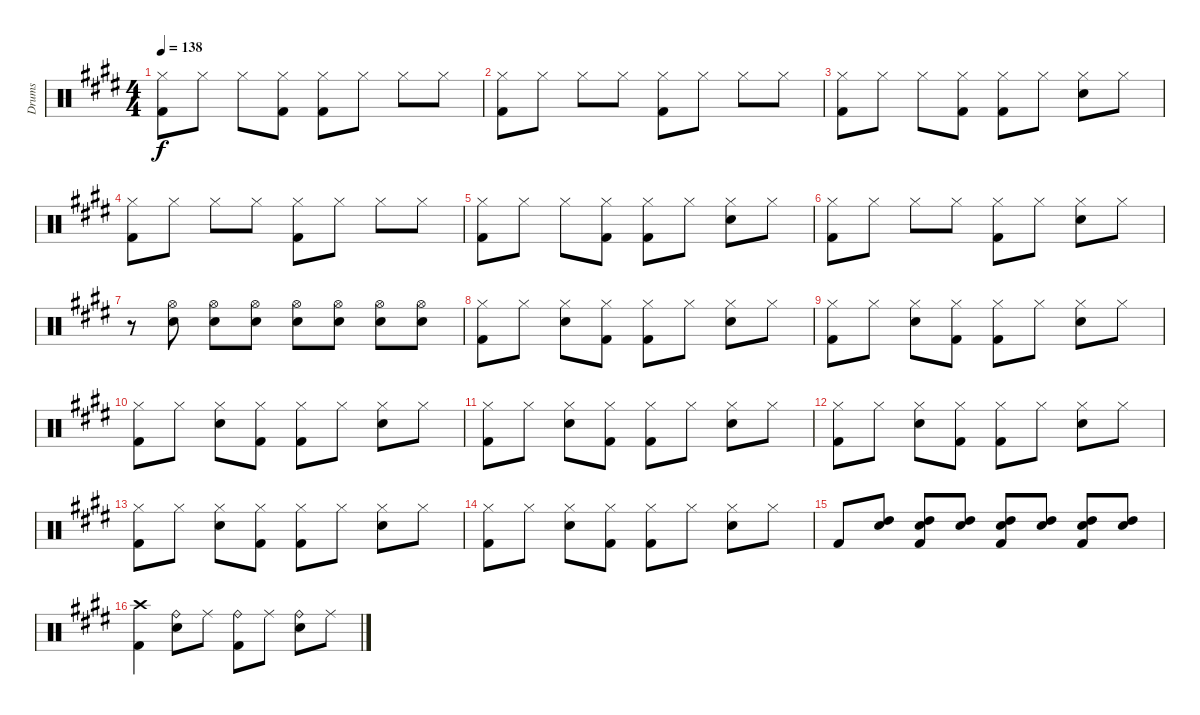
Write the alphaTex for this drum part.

\track ("Drums" "Drums") {instrument percussion}
\staff {score}
\articulation defaults
\ts (4 4)
\tempo 138
\clef neutral
\ks e
("Hi-Hat (closed)" "Kick (hit) 2").8{dy f} "Hi-Hat (closed)".8 "Hi-Hat (closed)".8 ("Hi-Hat (closed)" "Kick (hit) 2").8 ("Hi-Hat (closed)" "Kick (hit) 2").8 "Hi-Hat (closed)".8 "Hi-Hat (closed)".8 "Hi-Hat (closed)".8 |
("Hi-Hat (closed)" "Kick (hit) 2").8 "Hi-Hat (closed)".8 "Hi-Hat (closed)".8 "Hi-Hat (closed)".8 ("Hi-Hat (closed)" "Kick (hit) 2").8 "Hi-Hat (closed)".8 "Hi-Hat (closed)".8 "Hi-Hat (closed)".8 |
("Hi-Hat (closed)" "Kick (hit) 2").8 "Hi-Hat (closed)".8 "Hi-Hat (closed)".8 ("Hi-Hat (closed)" "Kick (hit) 2").8 ("Hi-Hat (closed)" "Kick (hit) 2").8 "Hi-Hat (closed)".8 ("Hi-Hat (closed)" "Snare (hit) 2").8 "Hi-Hat (closed)".8 |
("Hi-Hat (closed)" "Kick (hit) 2").8 "Hi-Hat (closed)".8 "Hi-Hat (closed)".8 "Hi-Hat (closed)".8 ("Hi-Hat (closed)" "Kick (hit) 2").8 "Hi-Hat (closed)".8 "Hi-Hat (closed)".8 "Hi-Hat (closed)".8 |
("Hi-Hat (closed)" "Kick (hit) 2").8 "Hi-Hat (closed)".8 "Hi-Hat (closed)".8 ("Hi-Hat (closed)" "Kick (hit) 2").8 ("Hi-Hat (closed)" "Kick (hit) 2").8 "Hi-Hat (closed)".8 ("Hi-Hat (closed)" "Snare (hit) 2").8 "Hi-Hat (closed)".8 |
("Hi-Hat (closed)" "Kick (hit) 2").8 "Hi-Hat (closed)".8 "Hi-Hat (closed)".8 "Hi-Hat (closed)".8 ("Hi-Hat (closed)" "Kick (hit) 2").8 "Hi-Hat (closed)".8 ("Hi-Hat (closed)" "Snare (hit) 2").8 "Hi-Hat (closed)".8 |
r.8 ("Hi-Hat (open)" "Snare (hit) 2").8 ("Hi-Hat (open)" "Snare (hit) 2").8 ("Hi-Hat (open)" "Snare (hit) 2").8 ("Hi-Hat (open)" "Snare (hit) 2").8 ("Hi-Hat (open)" "Snare (hit) 2").8 ("Hi-Hat (open)" "Snare (hit) 2").8 ("Hi-Hat (open)" "Snare (hit) 2").8 |
("Hi-Hat (closed)" "Kick (hit) 2").8 "Hi-Hat (closed)".8 ("Hi-Hat (closed)" "Snare (hit) 2").8 ("Hi-Hat (closed)" "Kick (hit) 2").8 ("Hi-Hat (closed)" "Kick (hit) 2").8 "Hi-Hat (closed)".8 ("Hi-Hat (closed)" "Snare (hit) 2").8 "Hi-Hat (closed)".8 |
("Hi-Hat (closed)" "Kick (hit) 2").8 "Hi-Hat (closed)".8 ("Hi-Hat (closed)" "Snare (hit) 2").8 ("Hi-Hat (closed)" "Kick (hit) 2").8 ("Hi-Hat (closed)" "Kick (hit) 2").8 "Hi-Hat (closed)".8 ("Hi-Hat (closed)" "Snare (hit) 2").8 "Hi-Hat (closed)".8 |
("Hi-Hat (closed)" "Kick (hit) 2").8 "Hi-Hat (closed)".8 ("Hi-Hat (closed)" "Snare (hit) 2").8 ("Hi-Hat (closed)" "Kick (hit) 2").8 ("Hi-Hat (closed)" "Kick (hit) 2").8 "Hi-Hat (closed)".8 ("Hi-Hat (closed)" "Snare (hit) 2").8 "Hi-Hat (closed)".8 |
("Hi-Hat (closed)" "Kick (hit) 2").8 "Hi-Hat (closed)".8 ("Hi-Hat (closed)" "Snare (hit) 2").8 ("Hi-Hat (closed)" "Kick (hit) 2").8 ("Hi-Hat (closed)" "Kick (hit) 2").8 "Hi-Hat (closed)".8 ("Hi-Hat (closed)" "Snare (hit) 2").8 "Hi-Hat (closed)".8 |
("Hi-Hat (closed)" "Kick (hit) 2").8 "Hi-Hat (closed)".8 ("Hi-Hat (closed)" "Snare (hit) 2").8 ("Hi-Hat (closed)" "Kick (hit) 2").8 ("Hi-Hat (closed)" "Kick (hit) 2").8 "Hi-Hat (closed)".8 ("Hi-Hat (closed)" "Snare (hit) 2").8 "Hi-Hat (closed)".8 |
("Hi-Hat (closed)" "Kick (hit) 2").8 "Hi-Hat (closed)".8 ("Hi-Hat (closed)" "Snare (hit) 2").8 ("Hi-Hat (closed)" "Kick (hit) 2").8 ("Hi-Hat (closed)" "Kick (hit) 2").8 "Hi-Hat (closed)".8 ("Hi-Hat (closed)" "Snare (hit) 2").8 "Hi-Hat (closed)".8 |
("Hi-Hat (closed)" "Kick (hit) 2").8 "Hi-Hat (closed)".8 ("Hi-Hat (closed)" "Snare (hit) 2").8 ("Hi-Hat (closed)" "Kick (hit) 2").8 ("Hi-Hat (closed)" "Kick (hit) 2").8 "Hi-Hat (closed)".8 ("Hi-Hat (closed)" "Snare (hit) 2").8 "Hi-Hat (closed)".8 |
"Kick (hit) 2".8 ("High Tom (hit)" "Snare (hit) 2").8 ("High Tom (hit)" "Snare (hit) 2" "Kick (hit) 2").8 ("High Tom (hit)" "Snare (hit) 2").8 ("High Tom (hit)" "Snare (hit) 2" "Kick (hit) 2").8 ("High Tom (hit)" "Snare (hit) 2").8 ("High Tom (hit)" "Snare (hit) 2" "Kick (hit) 2").8 ("High Tom (hit)" "Snare (hit) 2").8 |
("Crash high (hit)" "Kick (hit) 2").4 ("Ride (bell)" "Snare (hit) 2").8 "Ride (middle)".8 ("Ride (bell)" "Kick (hit) 2").8 "Ride (middle)".8 ("Ride (bell)" "Snare (hit) 2").8 "Ride (middle)".8
